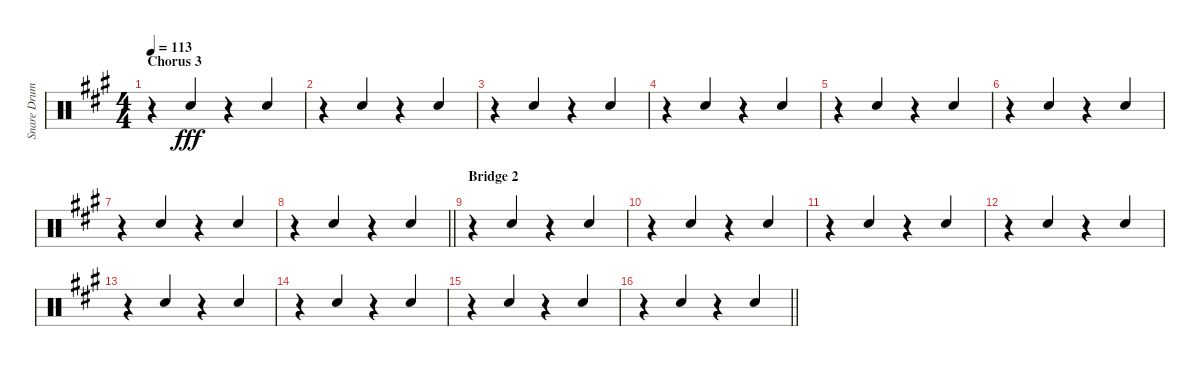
\track ("Snare Drum" "Snare Drum") {instrument percussion}
\staff {score}
\articulation defaults
\ts (4 4)
\section ("" "Chorus 3")
\tempo 113
\clef neutral
\ks f#minor
r.4{dy fff} "Electric Snare (hit)".4{beam Up} r.4 "Electric Snare (hit)".4{beam Up} |
r.4 "Electric Snare (hit)".4{beam Up} r.4 "Electric Snare (hit)".4{beam Up} |
r.4 "Electric Snare (hit)".4{beam Up} r.4 "Electric Snare (hit)".4{beam Up} |
r.4 "Electric Snare (hit)".4{beam Up} r.4 "Electric Snare (hit)".4{beam Up} |
r.4 "Electric Snare (hit)".4{beam Up} r.4 "Electric Snare (hit)".4{beam Up} |
r.4 "Electric Snare (hit)".4{beam Up} r.4 "Electric Snare (hit)".4{beam Up} |
r.4 "Electric Snare (hit)".4{beam Up} r.4 "Electric Snare (hit)".4{beam Up} |
\barLineRight lightlight
r.4 "Electric Snare (hit)".4{beam Up} r.4 "Electric Snare (hit)".4{beam Up} |
\section ("" "Bridge 2")
r.4 "Electric Snare (hit)".4{beam Up} r.4 "Electric Snare (hit)".4{beam Up} |
r.4 "Electric Snare (hit)".4{beam Up} r.4 "Electric Snare (hit)".4{beam Up} |
r.4 "Electric Snare (hit)".4{beam Up} r.4 "Electric Snare (hit)".4{beam Up} |
r.4 "Electric Snare (hit)".4{beam Up} r.4 "Electric Snare (hit)".4{beam Up} |
r.4 "Electric Snare (hit)".4{beam Up} r.4 "Electric Snare (hit)".4{beam Up} |
r.4 "Electric Snare (hit)".4{beam Up} r.4 "Electric Snare (hit)".4{beam Up} |
r.4 "Electric Snare (hit)".4{beam Up} r.4 "Electric Snare (hit)".4{beam Up} |
\barLineRight lightlight
r.4 "Electric Snare (hit)".4{beam Up} r.4 "Electric Snare (hit)".4{beam Up}
